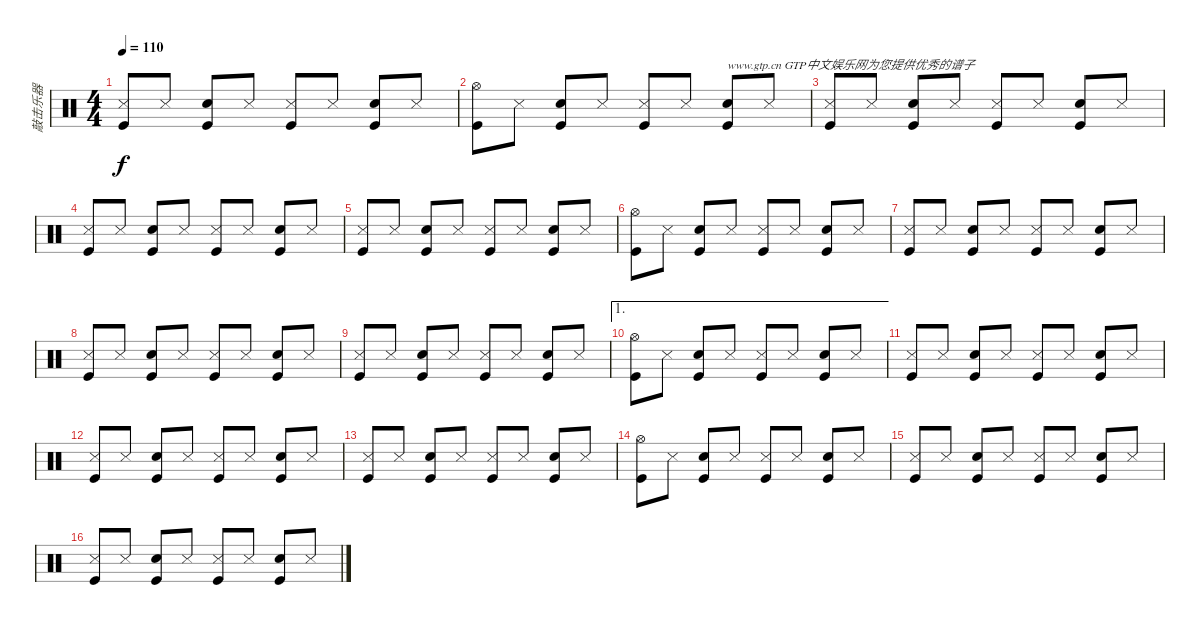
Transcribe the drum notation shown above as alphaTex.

\track ("敲击乐器" "敲击乐器") {instrument percussion}
\staff {score}
\articulation defaults
\ts (4 4)
\tempo 110
\clef neutral
\ks c
("Snare (side stick) 3" "Kick (hit)").8{dy f} "Snare (side stick) 3".8 ("Snare (hit) 2" "Kick (hit)").8 "Snare (side stick) 3".8 ("Snare (side stick) 3" "Kick (hit)").8 "Snare (side stick) 3".8 ("Snare (hit) 2" "Kick (hit)").8 "Snare (side stick) 3".8 |
("Hi-Hat (open)" "Kick (hit)").8 "Snare (side stick) 3".8 ("Snare (hit) 2" "Kick (hit)").8 "Snare (side stick) 3".8 ("Snare (side stick) 3" "Kick (hit)").8 "Snare (side stick) 3".8 ("Snare (hit) 2" "Kick (hit)").8{txt "www.gtp.cn GTP中文娱乐网为您提供优秀的谱子"} "Snare (side stick) 3".8 |
("Snare (side stick) 3" "Kick (hit)").8 "Snare (side stick) 3".8 ("Snare (hit) 2" "Kick (hit)").8 "Snare (side stick) 3".8 ("Snare (side stick) 3" "Kick (hit)").8 "Snare (side stick) 3".8 ("Snare (hit) 2" "Kick (hit)").8 "Snare (side stick) 3".8 |
("Snare (side stick) 3" "Kick (hit)").8 "Snare (side stick) 3".8 ("Snare (hit) 2" "Kick (hit)").8 "Snare (side stick) 3".8 ("Snare (side stick) 3" "Kick (hit)").8 "Snare (side stick) 3".8 ("Snare (hit) 2" "Kick (hit)").8 "Snare (side stick) 3".8 |
("Snare (side stick) 3" "Kick (hit)").8 "Snare (side stick) 3".8 ("Snare (hit) 2" "Kick (hit)").8 "Snare (side stick) 3".8 ("Snare (side stick) 3" "Kick (hit)").8 "Snare (side stick) 3".8 ("Snare (hit) 2" "Kick (hit)").8 "Snare (side stick) 3".8 |
("Hi-Hat (open)" "Kick (hit)").8 "Snare (side stick) 3".8 ("Snare (hit) 2" "Kick (hit)").8 "Snare (side stick) 3".8 ("Snare (side stick) 3" "Kick (hit)").8 "Snare (side stick) 3".8 ("Snare (hit) 2" "Kick (hit)").8 "Snare (side stick) 3".8 |
("Snare (side stick) 3" "Kick (hit)").8 "Snare (side stick) 3".8 ("Snare (hit) 2" "Kick (hit)").8 "Snare (side stick) 3".8 ("Snare (side stick) 3" "Kick (hit)").8 "Snare (side stick) 3".8 ("Snare (hit) 2" "Kick (hit)").8 "Snare (side stick) 3".8 |
("Snare (side stick) 3" "Kick (hit)").8 "Snare (side stick) 3".8 ("Snare (hit) 2" "Kick (hit)").8 "Snare (side stick) 3".8 ("Snare (side stick) 3" "Kick (hit)").8 "Snare (side stick) 3".8 ("Snare (hit) 2" "Kick (hit)").8 "Snare (side stick) 3".8 |
("Snare (side stick) 3" "Kick (hit)").8 "Snare (side stick) 3".8 ("Snare (hit) 2" "Kick (hit)").8 "Snare (side stick) 3".8 ("Snare (side stick) 3" "Kick (hit)").8 "Snare (side stick) 3".8 ("Snare (hit) 2" "Kick (hit)").8 "Snare (side stick) 3".8 |
\ae 1
("Hi-Hat (open)" "Kick (hit)").8 "Snare (side stick) 3".8 ("Snare (hit) 2" "Kick (hit)").8 "Snare (side stick) 3".8 ("Snare (side stick) 3" "Kick (hit)").8 "Snare (side stick) 3".8 ("Snare (hit) 2" "Kick (hit)").8 "Snare (side stick) 3".8 |
("Snare (side stick) 3" "Kick (hit)").8 "Snare (side stick) 3".8 ("Snare (hit) 2" "Kick (hit)").8 "Snare (side stick) 3".8 ("Snare (side stick) 3" "Kick (hit)").8 "Snare (side stick) 3".8 ("Snare (hit) 2" "Kick (hit)").8 "Snare (side stick) 3".8 |
("Snare (side stick) 3" "Kick (hit)").8 "Snare (side stick) 3".8 ("Snare (hit) 2" "Kick (hit)").8 "Snare (side stick) 3".8 ("Snare (side stick) 3" "Kick (hit)").8 "Snare (side stick) 3".8 ("Snare (hit) 2" "Kick (hit)").8 "Snare (side stick) 3".8 |
("Snare (side stick) 3" "Kick (hit)").8 "Snare (side stick) 3".8 ("Snare (hit) 2" "Kick (hit)").8 "Snare (side stick) 3".8 ("Snare (side stick) 3" "Kick (hit)").8 "Snare (side stick) 3".8 ("Snare (hit) 2" "Kick (hit)").8 "Snare (side stick) 3".8 |
("Hi-Hat (open)" "Kick (hit)").8 "Snare (side stick) 3".8 ("Snare (hit) 2" "Kick (hit)").8 "Snare (side stick) 3".8 ("Snare (side stick) 3" "Kick (hit)").8 "Snare (side stick) 3".8 ("Snare (hit) 2" "Kick (hit)").8 "Snare (side stick) 3".8 |
("Snare (side stick) 3" "Kick (hit)").8 "Snare (side stick) 3".8 ("Snare (hit) 2" "Kick (hit)").8 "Snare (side stick) 3".8 ("Snare (side stick) 3" "Kick (hit)").8 "Snare (side stick) 3".8 ("Snare (hit) 2" "Kick (hit)").8 "Snare (side stick) 3".8 |
("Snare (side stick) 3" "Kick (hit)").8 "Snare (side stick) 3".8 ("Snare (hit) 2" "Kick (hit)").8 "Snare (side stick) 3".8 ("Snare (side stick) 3" "Kick (hit)").8 "Snare (side stick) 3".8 ("Snare (hit) 2" "Kick (hit)").8 "Snare (side stick) 3".8
